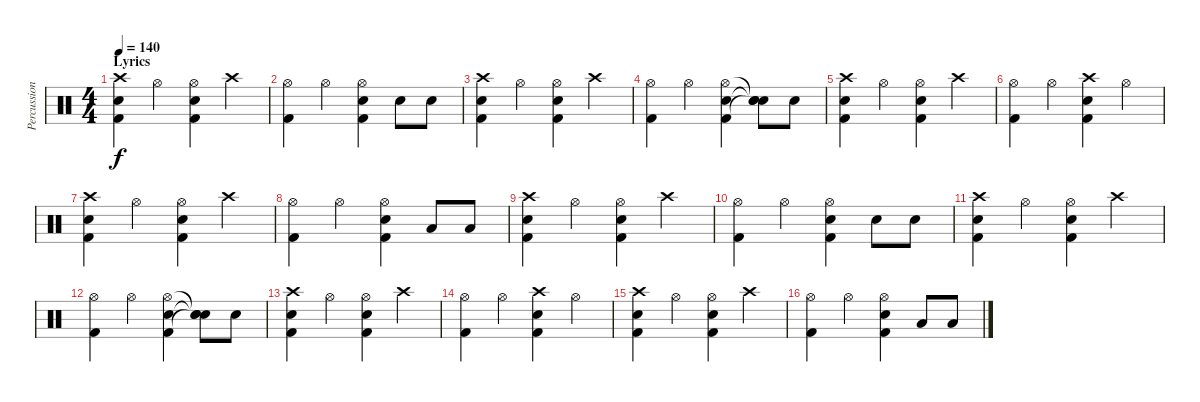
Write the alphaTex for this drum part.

\track ("Percussion" "Percussion") {instrument percussion}
\staff {score}
\articulation defaults
\ts (4 4)
\section ("" "Lyrics")
\tempo 140
\clef neutral
\ks c
("Crash high (hit)" "Snare (hit) 2" "Kick (hit) 2").4{dy f} "Hi-Hat (open)".4 ("Hi-Hat (open)" "Snare (hit) 2" "Kick (hit) 2").4 "Crash high (hit)".4 |
("Hi-Hat (open)" "Kick (hit) 2").4 "Hi-Hat (open)".4 ("Hi-Hat (open)" "Snare (hit) 2" "Kick (hit) 2").4 "Snare (hit) 2".8 "Snare (hit) 2".8 |
("Crash high (hit)" "Snare (hit) 2" "Kick (hit) 2").4 "Hi-Hat (open)".4 ("Hi-Hat (open)" "Snare (hit) 2" "Kick (hit) 2").4 "Crash high (hit)".4 |
("Hi-Hat (open)" "Kick (hit) 2").4 "Hi-Hat (open)".4 ("Hi-Hat (open)" "Snare (hit) 2" "Kick (hit) 2").4 ("Snare (hit)"{t} "Snare (hit) 2"{t} "Snare (hit)"{t}).8 "Snare (hit) 2".8 |
("Crash high (hit)" "Snare (hit) 2" "Kick (hit) 2").4 "Hi-Hat (open)".4 ("Hi-Hat (open)" "Snare (hit) 2" "Kick (hit) 2").4 "Crash high (hit)".4 |
("Hi-Hat (open)" "Kick (hit) 2").4 "Hi-Hat (open)".4 ("Crash high (hit)" "Snare (hit) 2" "Kick (hit) 2").4 "Hi-Hat (open)".4 |
("Crash high (hit)" "Snare (hit) 2" "Kick (hit) 2").4 "Hi-Hat (open)".4 ("Hi-Hat (open)" "Snare (hit) 2" "Kick (hit) 2").4 "Crash high (hit)".4 |
("Hi-Hat (open)" "Kick (hit) 2").4 "Hi-Hat (open)".4 ("Hi-Hat (open)" "Snare (hit) 2" "Kick (hit) 2").4 "Low Floor Tom (hit)".8 "Low Floor Tom (hit)".8 |
("Crash high (hit)" "Snare (hit) 2" "Kick (hit) 2").4 "Hi-Hat (open)".4 ("Hi-Hat (open)" "Snare (hit) 2" "Kick (hit) 2").4 "Crash high (hit)".4 |
("Hi-Hat (open)" "Kick (hit) 2").4 "Hi-Hat (open)".4 ("Hi-Hat (open)" "Snare (hit) 2" "Kick (hit) 2").4 "Snare (hit) 2".8 "Snare (hit) 2".8 |
("Crash high (hit)" "Snare (hit) 2" "Kick (hit) 2").4 "Hi-Hat (open)".4 ("Hi-Hat (open)" "Snare (hit) 2" "Kick (hit) 2").4 "Crash high (hit)".4 |
("Hi-Hat (open)" "Kick (hit) 2").4 "Hi-Hat (open)".4 ("Hi-Hat (open)" "Snare (hit) 2" "Kick (hit) 2").4 ("Snare (hit)"{t} "Snare (hit) 2"{t} "Snare (hit)"{t}).8 "Snare (hit) 2".8 |
("Crash high (hit)" "Snare (hit) 2" "Kick (hit) 2").4 "Hi-Hat (open)".4 ("Hi-Hat (open)" "Snare (hit) 2" "Kick (hit) 2").4 "Crash high (hit)".4 |
("Hi-Hat (open)" "Kick (hit) 2").4 "Hi-Hat (open)".4 ("Crash high (hit)" "Snare (hit) 2" "Kick (hit) 2").4 "Hi-Hat (open)".4 |
("Crash high (hit)" "Snare (hit) 2" "Kick (hit) 2").4 "Hi-Hat (open)".4 ("Hi-Hat (open)" "Snare (hit) 2" "Kick (hit) 2").4 "Crash high (hit)".4 |
("Hi-Hat (open)" "Kick (hit) 2").4 "Hi-Hat (open)".4 ("Hi-Hat (open)" "Snare (hit) 2" "Kick (hit) 2").4 "Low Floor Tom (hit)".8 "Low Floor Tom (hit)".8
